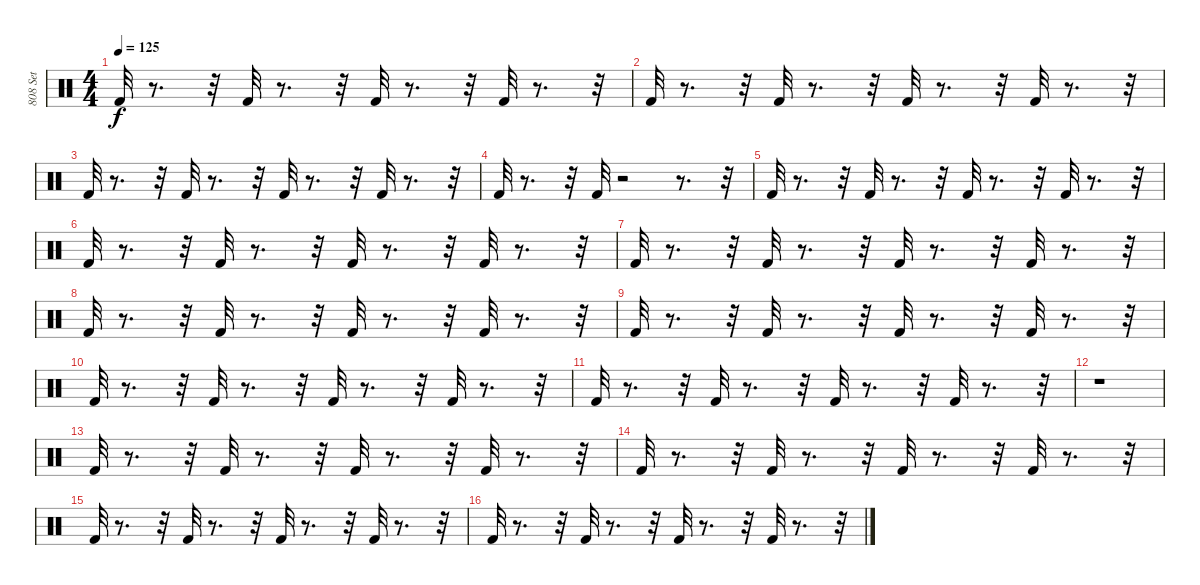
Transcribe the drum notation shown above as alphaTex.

\track ("808 Set" "808 Set") {instrument percussion}
\staff {score}
\articulation defaults
\ts (4 4)
\tempo 125
\clef neutral
\ks c "Kick (hit) 2".32{dy f}
r.8{d} r.32 "Kick (hit) 2".32 r.8{d} r.32 "Kick (hit) 2".32 r.8{d} r.32 "Kick (hit) 2".32 r.8{d} r.32 |
"Kick (hit) 2".32 r.8{d} r.32 "Kick (hit) 2".32 r.8{d} r.32 "Kick (hit) 2".32 r.8{d} r.32 "Kick (hit) 2".32 r.8{d} r.32 |
"Kick (hit) 2".32 r.8{d} r.32 "Kick (hit) 2".32 r.8{d} r.32 "Kick (hit) 2".32 r.8{d} r.32 "Kick (hit) 2".32 r.8{d} r.32 |
"Kick (hit) 2".32 r.8{d} r.32 "Kick (hit) 2".32 r.2 r.8{d} r.32 |
"Kick (hit) 2".32 r.8{d} r.32 "Kick (hit) 2".32 r.8{d} r.32 "Kick (hit) 2".32 r.8{d} r.32 "Kick (hit) 2".32 r.8{d} r.32 |
"Kick (hit) 2".32 r.8{d} r.32 "Kick (hit) 2".32 r.8{d} r.32 "Kick (hit) 2".32 r.8{d} r.32 "Kick (hit) 2".32 r.8{d} r.32 |
"Kick (hit) 2".32 r.8{d} r.32 "Kick (hit) 2".32 r.8{d} r.32 "Kick (hit) 2".32 r.8{d} r.32 "Kick (hit) 2".32 r.8{d} r.32 |
"Kick (hit) 2".32 r.8{d} r.32 "Kick (hit) 2".32 r.8{d} r.32 "Kick (hit) 2".32 r.8{d} r.32 "Kick (hit) 2".32 r.8{d} r.32 |
"Kick (hit) 2".32 r.8{d} r.32 "Kick (hit) 2".32 r.8{d} r.32 "Kick (hit) 2".32 r.8{d} r.32 "Kick (hit) 2".32 r.8{d} r.32 |
"Kick (hit) 2".32 r.8{d} r.32 "Kick (hit) 2".32 r.8{d} r.32 "Kick (hit) 2".32 r.8{d} r.32 "Kick (hit) 2".32 r.8{d} r.32 |
"Kick (hit) 2".32 r.8{d} r.32 "Kick (hit) 2".32 r.8{d} r.32 "Kick (hit) 2".32 r.8{d} r.32 "Kick (hit) 2".32 r.8{d} r.32 |
r.1 |
"Kick (hit) 2".32 r.8{d} r.32 "Kick (hit) 2".32 r.8{d} r.32 "Kick (hit) 2".32 r.8{d} r.32 "Kick (hit) 2".32 r.8{d} r.32 |
"Kick (hit) 2".32 r.8{d} r.32 "Kick (hit) 2".32 r.8{d} r.32 "Kick (hit) 2".32 r.8{d} r.32 "Kick (hit) 2".32 r.8{d} r.32 |
"Kick (hit) 2".32 r.8{d} r.32 "Kick (hit) 2".32 r.8{d} r.32 "Kick (hit) 2".32 r.8{d} r.32 "Kick (hit) 2".32 r.8{d} r.32 |
"Kick (hit) 2".32 r.8{d} r.32 "Kick (hit) 2".32 r.8{d} r.32 "Kick (hit) 2".32 r.8{d} r.32 "Kick (hit) 2".32 r.8{d} r.32
